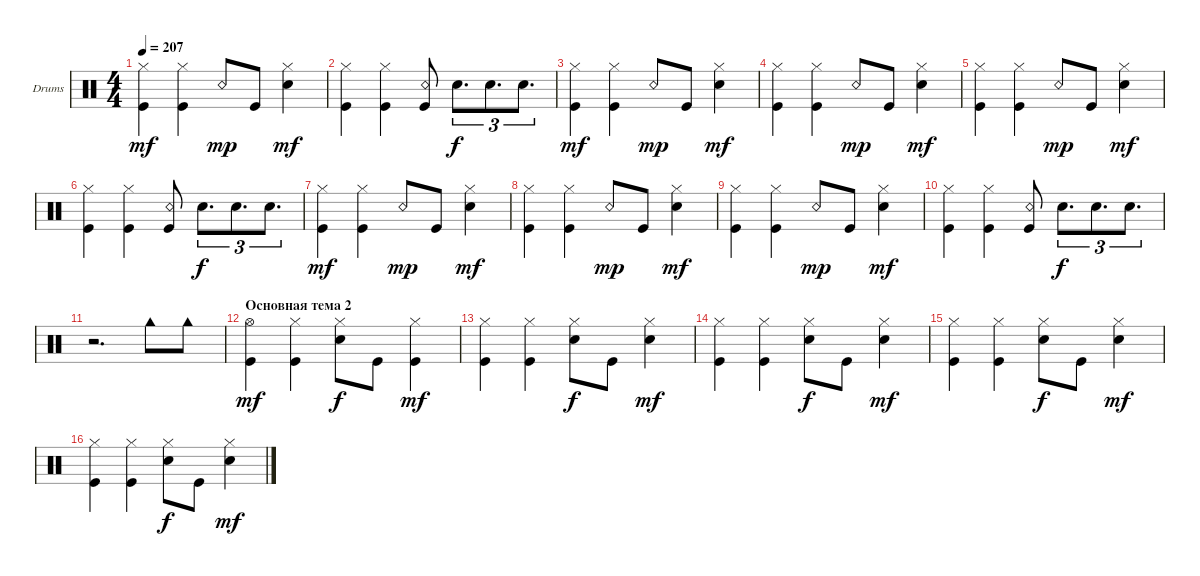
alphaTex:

\defaultSystemsLayout 4
\bracketExtendMode groupsimilarinstruments
\firstSystemTrackNameOrientation horizontal
\otherSystemsTrackNameOrientation horizontal
\track ("Drumkit" "Drums") {instrument percussion}
\staff {score}
\articulation defaults
\ts (4 4)
\tempo 207
\clef neutral
\scale
0.333333
\ks c
("Kick (hit)" "Hi-Hat (closed)").4{dy mf} ("Hi-Hat (closed)" "Kick (hit)").4 "Snare (rim shot)".8{dy mp} "Kick (hit)".8 ("Hi-Hat (closed)" "Snare (hit) 2").4{dy mf} |
\scale
0.333333 ("Kick (hit)" "Hi-Hat (closed)").4 ("Hi-Hat (closed)" "Kick (hit)").4 ("Kick (hit)" "Snare (rim shot)").8 "Snare (hit) 2".8{d tu (3 2) dy f} "Snare (hit) 2".8{d tu (3 2)} "Snare (hit) 2".8{d tu (3 2)} |
\scale
0.333333 ("Kick (hit)" "Hi-Hat (closed)").4{dy mf} ("Hi-Hat (closed)" "Kick (hit)").4 "Snare (rim shot)".8{dy mp} "Kick (hit)".8 ("Hi-Hat (closed)" "Snare (hit) 2").4{dy mf} |
\scale
0.333333 ("Kick (hit)" "Hi-Hat (closed)").4 ("Hi-Hat (closed)" "Kick (hit)").4 "Snare (rim shot)".8{dy mp} "Kick (hit)".8 ("Hi-Hat (closed)" "Snare (hit) 2").4{dy mf} |
\scale
0.333333 ("Kick (hit)" "Hi-Hat (closed)").4 ("Hi-Hat (closed)" "Kick (hit)").4 "Snare (rim shot)".8{dy mp} "Kick (hit)".8 ("Hi-Hat (closed)" "Snare (hit) 2").4{dy mf} |
\scale
0.333333 ("Kick (hit)" "Hi-Hat (closed)").4 ("Hi-Hat (closed)" "Kick (hit)").4 ("Kick (hit)" "Snare (rim shot)").8 "Snare (hit) 2".8{d tu (3 2) dy f} "Snare (hit) 2".8{d tu (3 2)} "Snare (hit) 2".8{d tu (3 2)} |
\scale
0.333333 ("Kick (hit)" "Hi-Hat (closed)").4{dy mf} ("Hi-Hat (closed)" "Kick (hit)").4 "Snare (rim shot)".8{dy mp} "Kick (hit)".8 ("Hi-Hat (closed)" "Snare (hit) 2").4{dy mf} |
\scale
0.333333 ("Kick (hit)" "Hi-Hat (closed)").4 ("Hi-Hat (closed)" "Kick (hit)").4 "Snare (rim shot)".8{dy mp} "Kick (hit)".8 ("Hi-Hat (closed)" "Snare (hit) 2").4{dy mf} |
("Kick (hit)" "Hi-Hat (closed)").4 ("Hi-Hat (closed)" "Kick (hit)").4 "Snare (rim shot)".8{dy mp} "Kick (hit)".8 ("Hi-Hat (closed)" "Snare (hit) 2").4{dy mf} |
("Kick (hit)" "Hi-Hat (closed)").4 ("Hi-Hat (closed)" "Kick (hit)").4 ("Kick (hit)" "Snare (rim shot)").8 "Snare (hit) 2".8{d tu (3 2) dy f} "Snare (hit) 2".8{d tu (3 2)} "Snare (hit) 2".8{d tu (3 2)} |
r.2{d} "Cowbell high (hit)".8 "Cowbell high (hit)".8 |
\section ("" "Основная тема 2")
("Kick (hit)" "Hi-Hat (open)").4{dy mf} ("Hi-Hat (closed)" "Kick (hit)").4 ("Snare (hit) 2" "Hi-Hat (closed)").8{dy f} "Kick (hit)".8 ("Hi-Hat (closed)" "Kick (hit)").4{dy mf} |
("Kick (hit)" "Hi-Hat (closed)").4 ("Hi-Hat (closed)" "Kick (hit)").4 ("Snare (hit) 2" "Hi-Hat (closed)").8{dy f} "Kick (hit)".8 ("Hi-Hat (closed)" "Snare (hit) 2").4{dy mf} |
("Kick (hit)" "Hi-Hat (closed)").4 ("Hi-Hat (closed)" "Kick (hit)").4 ("Snare (hit) 2" "Hi-Hat (closed)").8{dy f} "Kick (hit)".8 ("Hi-Hat (closed)" "Snare (hit) 2").4{dy mf} |
("Kick (hit)" "Hi-Hat (closed)").4 ("Hi-Hat (closed)" "Kick (hit)").4 ("Snare (hit) 2" "Hi-Hat (closed)").8{dy f} "Kick (hit)".8 ("Hi-Hat (closed)" "Snare (hit) 2").4{dy mf} |
("Kick (hit)" "Hi-Hat (closed)").4 ("Hi-Hat (closed)" "Kick (hit)").4 ("Snare (hit) 2" "Hi-Hat (closed)").8{dy f} "Kick (hit)".8 ("Hi-Hat (closed)" "Snare (hit) 2").4{dy mf}
